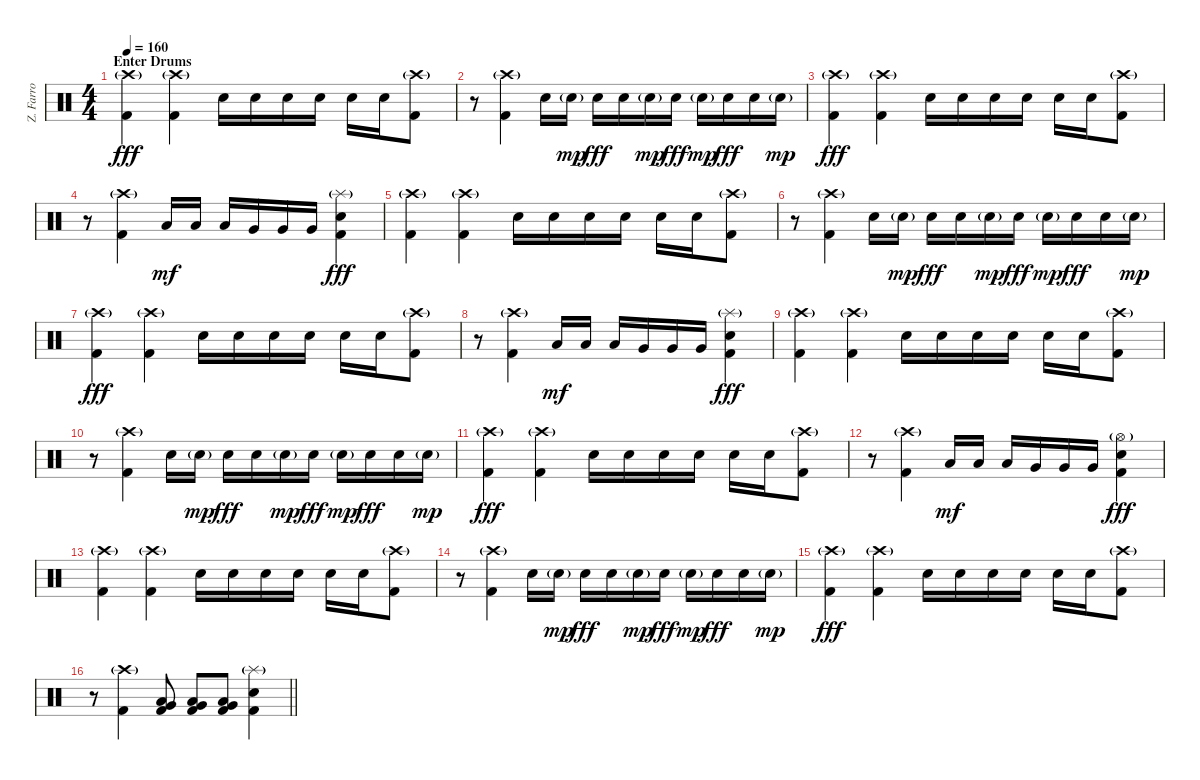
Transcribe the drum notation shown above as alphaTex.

\track ("Z. Farro" "Z. Farro") {instrument percussion}
\staff {score}
\articulation defaults
\ts (4 4)
\section ("" "Enter Drums")
\tempo 160
\clef neutral
\ks c
("Crash high (hit)"{g} "Kick (hit) 2").4{dy fff} ("Crash high (hit)"{g} "Kick (hit) 2").4 "Electric Snare (hit)".16 "Electric Snare (hit)".16 "Electric Snare (hit)".16 "Electric Snare (hit)".16 "Electric Snare (hit)".16 "Electric Snare (hit)".16 ("Crash high (hit)"{g} "Kick (hit) 2").8 |
r.8 ("Crash high (hit)"{g} "Kick (hit) 2").4 "Electric Snare (hit)".16 "Electric Snare (hit)"{g}.16{dy mp} "Electric Snare (hit)".16{dy fff} "Electric Snare (hit)".16 "Electric Snare (hit)"{g}.16{dy mp} "Electric Snare (hit)".16{dy fff} "Electric Snare (hit)"{g}.16{dy mp} "Electric Snare (hit)".16{dy fff} "Electric Snare (hit)".16 "Electric Snare (hit)"{g}.16{dy mp} |
("Crash high (hit)"{g} "Kick (hit) 2").4{dy fff} ("Crash high (hit)"{g} "Kick (hit) 2").4 "Electric Snare (hit)".16 "Electric Snare (hit)".16 "Electric Snare (hit)".16 "Electric Snare (hit)".16 "Electric Snare (hit)".16 "Electric Snare (hit)".16 ("Crash high (hit)"{g} "Kick (hit) 2").8 |
r.8 ("Crash high (hit)"{g} "Kick (hit) 2").4 "Low Tom (hit)".16{dy mf} "Low Tom (hit)".16 "Low Tom (hit)".16 "Very Low Tom (hit)".16 "Very Low Tom (hit)".16 "Very Low Tom (hit)".16 ("Splash (hit)"{g} "Electric Snare (hit)" "Kick (hit) 2").4{dy fff} |
("Crash high (hit)"{g} "Kick (hit) 2").4 ("Crash high (hit)"{g} "Kick (hit) 2").4 "Electric Snare (hit)".16 "Electric Snare (hit)".16 "Electric Snare (hit)".16 "Electric Snare (hit)".16 "Electric Snare (hit)".16 "Electric Snare (hit)".16 ("Crash high (hit)"{g} "Kick (hit) 2").8 |
r.8 ("Crash high (hit)"{g} "Kick (hit) 2").4 "Electric Snare (hit)".16 "Electric Snare (hit)"{g}.16{dy mp} "Electric Snare (hit)".16{dy fff} "Electric Snare (hit)".16 "Electric Snare (hit)"{g}.16{dy mp} "Electric Snare (hit)".16{dy fff} "Electric Snare (hit)"{g}.16{dy mp} "Electric Snare (hit)".16{dy fff} "Electric Snare (hit)".16 "Electric Snare (hit)"{g}.16{dy mp} |
("Crash high (hit)"{g} "Kick (hit) 2").4{dy fff} ("Crash high (hit)"{g} "Kick (hit) 2").4 "Electric Snare (hit)".16 "Electric Snare (hit)".16 "Electric Snare (hit)".16 "Electric Snare (hit)".16 "Electric Snare (hit)".16 "Electric Snare (hit)".16 ("Crash high (hit)"{g} "Kick (hit) 2").8 |
r.8 ("Crash high (hit)"{g} "Kick (hit) 2").4 "Low Tom (hit)".16{dy mf} "Low Tom (hit)".16 "Low Tom (hit)".16 "Very Low Tom (hit)".16 "Very Low Tom (hit)".16 "Very Low Tom (hit)".16 ("Splash (hit)"{g} "Electric Snare (hit)" "Kick (hit) 2").4{dy fff} |
("Crash high (hit)"{g} "Kick (hit) 2").4 ("Crash high (hit)"{g} "Kick (hit) 2").4 "Electric Snare (hit)".16 "Electric Snare (hit)".16 "Electric Snare (hit)".16 "Electric Snare (hit)".16 "Electric Snare (hit)".16 "Electric Snare (hit)".16 ("Crash high (hit)"{g} "Kick (hit) 2").8 |
r.8 ("Crash high (hit)"{g} "Kick (hit) 2").4 "Electric Snare (hit)".16 "Electric Snare (hit)"{g}.16{dy mp} "Electric Snare (hit)".16{dy fff} "Electric Snare (hit)".16 "Electric Snare (hit)"{g}.16{dy mp} "Electric Snare (hit)".16{dy fff} "Electric Snare (hit)"{g}.16{dy mp} "Electric Snare (hit)".16{dy fff} "Electric Snare (hit)".16 "Electric Snare (hit)"{g}.16{dy mp} |
("Crash high (hit)"{g} "Kick (hit) 2").4{dy fff} ("Crash high (hit)"{g} "Kick (hit) 2").4 "Electric Snare (hit)".16 "Electric Snare (hit)".16 "Electric Snare (hit)".16 "Electric Snare (hit)".16 "Electric Snare (hit)".16 "Electric Snare (hit)".16 ("Crash high (hit)"{g} "Kick (hit) 2").8 |
r.8 ("Crash high (hit)"{g} "Kick (hit) 2").4 "Low Tom (hit)".16{dy mf} "Low Tom (hit)".16 "Low Tom (hit)".16 "Very Low Tom (hit)".16 "Very Low Tom (hit)".16 "Very Low Tom (hit)".16 ("Hi-Hat (open)"{g} "Electric Snare (hit)" "Kick (hit) 2").4{dy fff} |
("Crash high (hit)"{g} "Kick (hit) 2").4 ("Crash high (hit)"{g} "Kick (hit) 2").4 "Electric Snare (hit)".16 "Electric Snare (hit)".16 "Electric Snare (hit)".16 "Electric Snare (hit)".16 "Electric Snare (hit)".16 "Electric Snare (hit)".16 ("Crash high (hit)"{g} "Kick (hit) 2").8 |
r.8 ("Crash high (hit)"{g} "Kick (hit) 2").4 "Electric Snare (hit)".16 "Electric Snare (hit)"{g}.16{dy mp} "Electric Snare (hit)".16{dy fff} "Electric Snare (hit)".16 "Electric Snare (hit)"{g}.16{dy mp} "Electric Snare (hit)".16{dy fff} "Electric Snare (hit)"{g}.16{dy mp} "Electric Snare (hit)".16{dy fff} "Electric Snare (hit)".16 "Electric Snare (hit)"{g}.16{dy mp} |
("Crash high (hit)"{g} "Kick (hit) 2").4{dy fff} ("Crash high (hit)"{g} "Kick (hit) 2").4 "Electric Snare (hit)".16 "Electric Snare (hit)".16 "Electric Snare (hit)".16 "Electric Snare (hit)".16 "Electric Snare (hit)".16 "Electric Snare (hit)".16 ("Crash high (hit)"{g} "Kick (hit) 2").8 |
\barLineRight lightlight
r.8 ("Crash high (hit)"{g} "Kick (hit) 2").4 ("Low Tom (hit)" "Very Low Tom (hit)" "Kick (hit) 2").8 ("Low Tom (hit)" "Very Low Tom (hit)" "Kick (hit) 2").8 ("Low Tom (hit)" "Very Low Tom (hit)" "Kick (hit) 2").8 ("Splash (hit)"{g} "Electric Snare (hit)" "Kick (hit) 2").4
